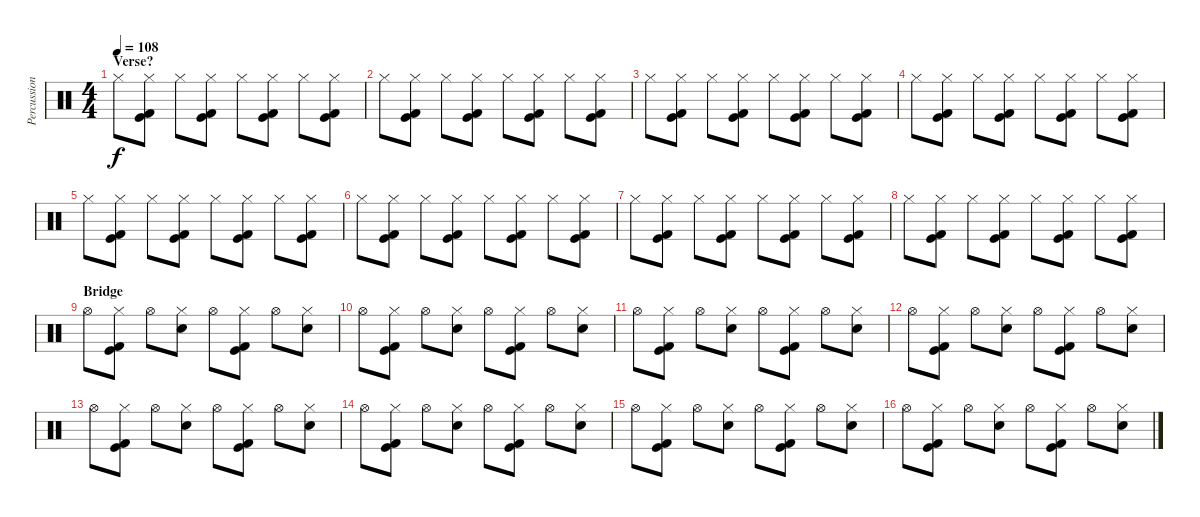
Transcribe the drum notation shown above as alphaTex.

\track ("Percussion" "Percussion") {instrument percussion}
\staff {score}
\articulation defaults
\ts (4 4)
\section ("" "Verse?")
\tempo 108
\clef neutral
\ks c "Hi-Hat (closed)".8{dy f}
("Hi-Hat (closed)" "Kick (hit) 2" "Kick (hit)").8 "Hi-Hat (closed)".8 ("Hi-Hat (closed)" "Kick (hit)" "Kick (hit) 2").8 "Hi-Hat (closed)".8 ("Hi-Hat (closed)" "Kick (hit) 2" "Kick (hit)").8 "Hi-Hat (closed)".8 ("Hi-Hat (closed)" "Kick (hit)" "Kick (hit) 2").8 |
"Hi-Hat (closed)".8 ("Hi-Hat (closed)" "Kick (hit) 2" "Kick (hit)").8 "Hi-Hat (closed)".8 ("Hi-Hat (closed)" "Kick (hit)" "Kick (hit) 2").8 "Hi-Hat (closed)".8 ("Hi-Hat (closed)" "Kick (hit) 2" "Kick (hit)").8 "Hi-Hat (closed)".8 ("Hi-Hat (closed)" "Kick (hit)" "Kick (hit) 2").8 |
"Hi-Hat (closed)".8 ("Hi-Hat (closed)" "Kick (hit) 2" "Kick (hit)").8 "Hi-Hat (closed)".8 ("Hi-Hat (closed)" "Kick (hit)" "Kick (hit) 2").8 "Hi-Hat (closed)".8 ("Hi-Hat (closed)" "Kick (hit) 2" "Kick (hit)").8 "Hi-Hat (closed)".8 ("Hi-Hat (closed)" "Kick (hit)" "Kick (hit) 2").8 |
"Hi-Hat (closed)".8 ("Hi-Hat (closed)" "Kick (hit) 2" "Kick (hit)").8 "Hi-Hat (closed)".8 ("Hi-Hat (closed)" "Kick (hit)" "Kick (hit) 2").8 "Hi-Hat (closed)".8 ("Hi-Hat (closed)" "Kick (hit) 2" "Kick (hit)").8 "Hi-Hat (closed)".8 ("Hi-Hat (closed)" "Kick (hit)" "Kick (hit) 2").8 |
"Hi-Hat (closed)".8 ("Hi-Hat (closed)" "Kick (hit) 2" "Kick (hit)").8 "Hi-Hat (closed)".8 ("Hi-Hat (closed)" "Kick (hit)" "Kick (hit) 2").8 "Hi-Hat (closed)".8 ("Hi-Hat (closed)" "Kick (hit) 2" "Kick (hit)").8 "Hi-Hat (closed)".8 ("Hi-Hat (closed)" "Kick (hit)" "Kick (hit) 2").8 |
"Hi-Hat (closed)".8 ("Hi-Hat (closed)" "Kick (hit) 2" "Kick (hit)").8 "Hi-Hat (closed)".8 ("Hi-Hat (closed)" "Kick (hit)" "Kick (hit) 2").8 "Hi-Hat (closed)".8 ("Hi-Hat (closed)" "Kick (hit) 2" "Kick (hit)").8 "Hi-Hat (closed)".8 ("Hi-Hat (closed)" "Kick (hit)" "Kick (hit) 2").8 |
"Hi-Hat (closed)".8 ("Hi-Hat (closed)" "Kick (hit) 2" "Kick (hit)").8 "Hi-Hat (closed)".8 ("Hi-Hat (closed)" "Kick (hit)" "Kick (hit) 2").8 "Hi-Hat (closed)".8 ("Hi-Hat (closed)" "Kick (hit) 2" "Kick (hit)").8 "Hi-Hat (closed)".8 ("Hi-Hat (closed)" "Kick (hit)" "Kick (hit) 2").8 |
"Hi-Hat (closed)".8 ("Hi-Hat (closed)" "Kick (hit) 2" "Kick (hit)").8 "Hi-Hat (closed)".8 ("Hi-Hat (closed)" "Kick (hit)" "Kick (hit) 2").8 "Hi-Hat (closed)".8 ("Hi-Hat (closed)" "Kick (hit) 2" "Kick (hit)").8 "Hi-Hat (closed)".8 ("Hi-Hat (closed)" "Kick (hit)" "Kick (hit) 2").8 |
\section ("" "Bridge")
"Hi-Hat (open)".8 ("Hi-Hat (closed)" "Kick (hit)" "Kick (hit) 2").8 "Hi-Hat (open)".8 ("Hi-Hat (closed)" "Snare (hit) 2").8 "Hi-Hat (open)".8 ("Hi-Hat (closed)" "Kick (hit)" "Kick (hit) 2").8 "Hi-Hat (open)".8 ("Hi-Hat (closed)" "Snare (hit) 2").8 |
"Hi-Hat (open)".8 ("Hi-Hat (closed)" "Kick (hit)" "Kick (hit) 2").8 "Hi-Hat (open)".8 ("Hi-Hat (closed)" "Snare (hit) 2").8 "Hi-Hat (open)".8 ("Hi-Hat (closed)" "Kick (hit)" "Kick (hit) 2").8 "Hi-Hat (open)".8 ("Hi-Hat (closed)" "Snare (hit) 2").8 |
"Hi-Hat (open)".8 ("Hi-Hat (closed)" "Kick (hit)" "Kick (hit) 2").8 "Hi-Hat (open)".8 ("Hi-Hat (closed)" "Snare (hit) 2").8 "Hi-Hat (open)".8 ("Hi-Hat (closed)" "Kick (hit)" "Kick (hit) 2").8 "Hi-Hat (open)".8 ("Hi-Hat (closed)" "Snare (hit) 2").8 |
"Hi-Hat (open)".8 ("Hi-Hat (closed)" "Kick (hit)" "Kick (hit) 2").8 "Hi-Hat (open)".8 ("Hi-Hat (closed)" "Snare (hit) 2").8 "Hi-Hat (open)".8 ("Hi-Hat (closed)" "Kick (hit)" "Kick (hit) 2").8 "Hi-Hat (open)".8 ("Hi-Hat (closed)" "Snare (hit) 2").8 |
"Hi-Hat (open)".8 ("Hi-Hat (closed)" "Kick (hit)" "Kick (hit) 2").8 "Hi-Hat (open)".8 ("Hi-Hat (closed)" "Snare (hit) 2").8 "Hi-Hat (open)".8 ("Hi-Hat (closed)" "Kick (hit)" "Kick (hit) 2").8 "Hi-Hat (open)".8 ("Hi-Hat (closed)" "Snare (hit) 2").8 |
"Hi-Hat (open)".8 ("Hi-Hat (closed)" "Kick (hit)" "Kick (hit) 2").8 "Hi-Hat (open)".8 ("Hi-Hat (closed)" "Snare (hit) 2").8 "Hi-Hat (open)".8 ("Hi-Hat (closed)" "Kick (hit)" "Kick (hit) 2").8 "Hi-Hat (open)".8 ("Hi-Hat (closed)" "Snare (hit) 2").8 |
"Hi-Hat (open)".8 ("Hi-Hat (closed)" "Kick (hit)" "Kick (hit) 2").8 "Hi-Hat (open)".8 ("Hi-Hat (closed)" "Snare (hit) 2").8 "Hi-Hat (open)".8 ("Hi-Hat (closed)" "Kick (hit)" "Kick (hit) 2").8 "Hi-Hat (open)".8 ("Hi-Hat (closed)" "Snare (hit) 2").8 |
"Hi-Hat (open)".8 ("Hi-Hat (closed)" "Kick (hit)" "Kick (hit) 2").8 "Hi-Hat (open)".8 ("Hi-Hat (closed)" "Snare (hit) 2").8 "Hi-Hat (open)".8 ("Hi-Hat (closed)" "Kick (hit)" "Kick (hit) 2").8 "Hi-Hat (open)".8 ("Hi-Hat (closed)" "Snare (hit) 2").8
